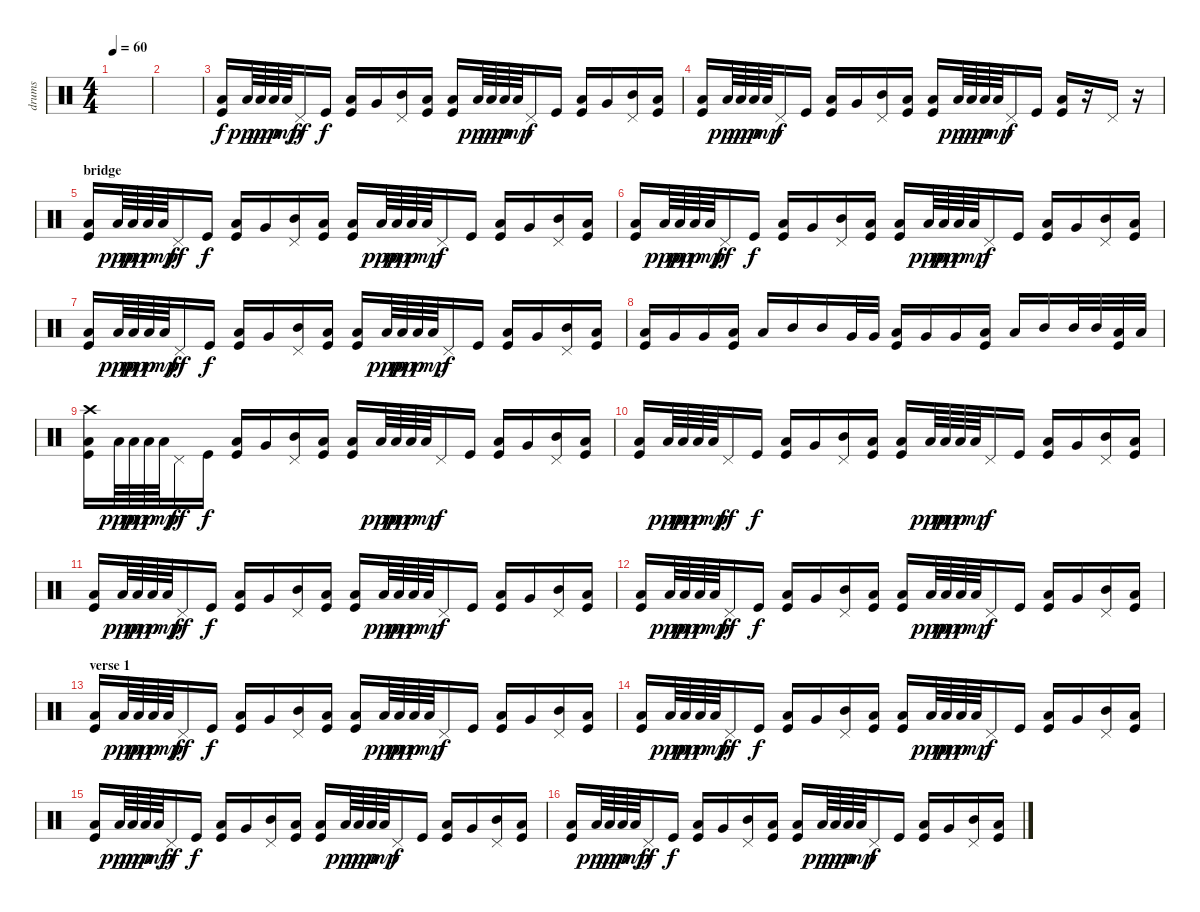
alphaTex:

\track ("drums" "drums") {instrument percussion}
\staff {score}
\articulation defaults
\ts (4 4)
\tempo 60
\clef neutral
\ks c
|
|
("Low Floor Tom (hit)" "Kick (hit)").16 "Low Floor Tom (hit)".64{dy ppp} "Low Floor Tom (hit)".64{dy pp} "Low Floor Tom (hit)".64{dy p} "Low Floor Tom (hit)".64{dy mp} "Pedal Hi-Hat (hit)".16{dy ff} "Kick (hit)".16{dy f} ("Low Floor Tom (hit)" "Kick (hit)").16 "Very Low Tom (hit)".16 ("Mid Tom (hit)" "Pedal Hi-Hat (hit)").16 ("Low Floor Tom (hit)" "Kick (hit)").16 ("Low Floor Tom (hit)" "Kick (hit)").16 "Low Floor Tom (hit)".64{dy ppp} "Low Floor Tom (hit)".64{dy pp} "Low Floor Tom (hit)".64{dy p} "Low Floor Tom (hit)".64{dy mp} "Pedal Hi-Hat (hit)".16{dy f} "Kick (hit)".16 ("Low Floor Tom (hit)" "Kick (hit)").16 "Very Low Tom (hit)".16 ("Mid Tom (hit)" "Pedal Hi-Hat (hit)").16 ("Low Floor Tom (hit)" "Kick (hit)").16 |
("Low Floor Tom (hit)" "Kick (hit)").16 "Low Floor Tom (hit)".64{dy ppp} "Low Floor Tom (hit)".64{dy pp} "Low Floor Tom (hit)".64{dy p} "Low Floor Tom (hit)".64{dy mp} "Pedal Hi-Hat (hit)".16{dy f} "Kick (hit)".16 ("Low Floor Tom (hit)" "Kick (hit)").16 "Very Low Tom (hit)".16 ("Mid Tom (hit)" "Pedal Hi-Hat (hit)").16 ("Low Floor Tom (hit)" "Kick (hit)").16 ("Low Floor Tom (hit)" "Kick (hit)").16 "Low Floor Tom (hit)".64{dy ppp} "Low Floor Tom (hit)".64{dy pp} "Low Floor Tom (hit)".64{dy p} "Low Floor Tom (hit)".64{dy mp} "Pedal Hi-Hat (hit)".16{dy f} "Kick (hit)".16 ("Low Floor Tom (hit)" "Kick (hit)").16 r.16 "Pedal Hi-Hat (hit)".16 r.16 |
\section ("" "bridge")
("Low Floor Tom (hit)" "Kick (hit)").16 "Low Floor Tom (hit)".64{dy ppp} "Low Floor Tom (hit)".64{dy pp} "Low Floor Tom (hit)".64{dy p} "Low Floor Tom (hit)".64{dy mp} "Pedal Hi-Hat (hit)".16{dy ff} "Kick (hit)".16{dy f} ("Low Floor Tom (hit)" "Kick (hit)").16 "Very Low Tom (hit)".16 ("Mid Tom (hit)" "Pedal Hi-Hat (hit)").16 ("Low Floor Tom (hit)" "Kick (hit)").16 ("Low Floor Tom (hit)" "Kick (hit)").16 "Low Floor Tom (hit)".64{dy ppp} "Low Floor Tom (hit)".64{dy pp} "Low Floor Tom (hit)".64{dy p} "Low Floor Tom (hit)".64{dy mp} "Pedal Hi-Hat (hit)".16{dy f} "Kick (hit)".16 ("Low Floor Tom (hit)" "Kick (hit)").16 "Very Low Tom (hit)".16 ("Mid Tom (hit)" "Pedal Hi-Hat (hit)").16 ("Low Floor Tom (hit)" "Kick (hit)").16 |
("Low Floor Tom (hit)" "Kick (hit)").16 "Low Floor Tom (hit)".64{dy ppp} "Low Floor Tom (hit)".64{dy pp} "Low Floor Tom (hit)".64{dy p} "Low Floor Tom (hit)".64{dy mp} "Pedal Hi-Hat (hit)".16{dy ff} "Kick (hit)".16{dy f} ("Low Floor Tom (hit)" "Kick (hit)").16 "Very Low Tom (hit)".16 ("Mid Tom (hit)" "Pedal Hi-Hat (hit)").16 ("Low Floor Tom (hit)" "Kick (hit)").16 ("Low Floor Tom (hit)" "Kick (hit)").16 "Low Floor Tom (hit)".64{dy ppp} "Low Floor Tom (hit)".64{dy pp} "Low Floor Tom (hit)".64{dy p} "Low Floor Tom (hit)".64{dy mp} "Pedal Hi-Hat (hit)".16{dy f} "Kick (hit)".16 ("Low Floor Tom (hit)" "Kick (hit)").16 "Very Low Tom (hit)".16 ("Mid Tom (hit)" "Pedal Hi-Hat (hit)").16 ("Low Floor Tom (hit)" "Kick (hit)").16 |
("Low Floor Tom (hit)" "Kick (hit)").16 "Low Floor Tom (hit)".64{dy ppp} "Low Floor Tom (hit)".64{dy pp} "Low Floor Tom (hit)".64{dy p} "Low Floor Tom (hit)".64{dy mp} "Pedal Hi-Hat (hit)".16{dy ff} "Kick (hit)".16{dy f} ("Low Floor Tom (hit)" "Kick (hit)").16 "Very Low Tom (hit)".16 ("Mid Tom (hit)" "Pedal Hi-Hat (hit)").16 ("Low Floor Tom (hit)" "Kick (hit)").16 ("Low Floor Tom (hit)" "Kick (hit)").16 "Low Floor Tom (hit)".64{dy ppp} "Low Floor Tom (hit)".64{dy pp} "Low Floor Tom (hit)".64{dy p} "Low Floor Tom (hit)".64{dy mp} "Pedal Hi-Hat (hit)".16{dy f} "Kick (hit)".16 ("Low Floor Tom (hit)" "Kick (hit)").16 "Very Low Tom (hit)".16 ("Mid Tom (hit)" "Pedal Hi-Hat (hit)").16 ("Low Floor Tom (hit)" "Kick (hit)").16 |
("Low Floor Tom (hit)" "Kick (hit)").16 "Very Low Tom (hit)".16 "Very Low Tom (hit)".16 ("Low Floor Tom (hit)" "Kick (hit)").16 "Low Floor Tom (hit)".16 "Mid Tom (hit)".16 "Mid Tom (hit)".16 "Very Low Tom (hit)".32 "Very Low Tom (hit)".32 ("Low Floor Tom (hit)" "Kick (hit)").16 "Very Low Tom (hit)".16 "Very Low Tom (hit)".16 ("Low Floor Tom (hit)" "Kick (hit)").16 "Low Floor Tom (hit)".16 "Mid Tom (hit)".16 "Mid Tom (hit)".32 "Mid Tom (hit)".32 ("Low Floor Tom (hit)" "Kick (hit)").32 "Low Floor Tom (hit)".32 |
("Crash high (hit)" "Low Floor Tom (hit)" "Kick (hit)").16 "Low Floor Tom (hit)".64{dy ppp} "Low Floor Tom (hit)".64{dy pp} "Low Floor Tom (hit)".64{dy p} "Low Floor Tom (hit)".64{dy mp} "Pedal Hi-Hat (hit)".16{dy ff} "Kick (hit)".16{dy f} ("Low Floor Tom (hit)" "Kick (hit)").16 "Very Low Tom (hit)".16 ("Mid Tom (hit)" "Pedal Hi-Hat (hit)").16 ("Low Floor Tom (hit)" "Kick (hit)").16 ("Low Floor Tom (hit)" "Kick (hit)").16 "Low Floor Tom (hit)".64{dy ppp} "Low Floor Tom (hit)".64{dy pp} "Low Floor Tom (hit)".64{dy p} "Low Floor Tom (hit)".64{dy mp} "Pedal Hi-Hat (hit)".16{dy f} "Kick (hit)".16 ("Low Floor Tom (hit)" "Kick (hit)").16 "Very Low Tom (hit)".16 ("Mid Tom (hit)" "Pedal Hi-Hat (hit)").16 ("Low Floor Tom (hit)" "Kick (hit)").16 |
("Low Floor Tom (hit)" "Kick (hit)").16 "Low Floor Tom (hit)".64{dy ppp} "Low Floor Tom (hit)".64{dy pp} "Low Floor Tom (hit)".64{dy p} "Low Floor Tom (hit)".64{dy mp} "Pedal Hi-Hat (hit)".16{dy ff} "Kick (hit)".16{dy f} ("Low Floor Tom (hit)" "Kick (hit)").16 "Very Low Tom (hit)".16 ("Mid Tom (hit)" "Pedal Hi-Hat (hit)").16 ("Low Floor Tom (hit)" "Kick (hit)").16 ("Low Floor Tom (hit)" "Kick (hit)").16 "Low Floor Tom (hit)".64{dy ppp} "Low Floor Tom (hit)".64{dy pp} "Low Floor Tom (hit)".64{dy p} "Low Floor Tom (hit)".64{dy mp} "Pedal Hi-Hat (hit)".16{dy f} "Kick (hit)".16 ("Low Floor Tom (hit)" "Kick (hit)").16 "Very Low Tom (hit)".16 ("Mid Tom (hit)" "Pedal Hi-Hat (hit)").16 ("Low Floor Tom (hit)" "Kick (hit)").16 |
("Low Floor Tom (hit)" "Kick (hit)").16 "Low Floor Tom (hit)".64{dy ppp} "Low Floor Tom (hit)".64{dy pp} "Low Floor Tom (hit)".64{dy p} "Low Floor Tom (hit)".64{dy mp} "Pedal Hi-Hat (hit)".16{dy ff} "Kick (hit)".16{dy f} ("Low Floor Tom (hit)" "Kick (hit)").16 "Very Low Tom (hit)".16 ("Mid Tom (hit)" "Pedal Hi-Hat (hit)").16 ("Low Floor Tom (hit)" "Kick (hit)").16 ("Low Floor Tom (hit)" "Kick (hit)").16 "Low Floor Tom (hit)".64{dy ppp} "Low Floor Tom (hit)".64{dy pp} "Low Floor Tom (hit)".64{dy p} "Low Floor Tom (hit)".64{dy mp} "Pedal Hi-Hat (hit)".16{dy f} "Kick (hit)".16 ("Low Floor Tom (hit)" "Kick (hit)").16 "Very Low Tom (hit)".16 ("Mid Tom (hit)" "Pedal Hi-Hat (hit)").16 ("Low Floor Tom (hit)" "Kick (hit)").16 |
("Low Floor Tom (hit)" "Kick (hit)").16 "Low Floor Tom (hit)".64{dy ppp} "Low Floor Tom (hit)".64{dy pp} "Low Floor Tom (hit)".64{dy p} "Low Floor Tom (hit)".64{dy mp} "Pedal Hi-Hat (hit)".16{dy ff} "Kick (hit)".16{dy f} ("Low Floor Tom (hit)" "Kick (hit)").16 "Very Low Tom (hit)".16 ("Mid Tom (hit)" "Pedal Hi-Hat (hit)").16 ("Low Floor Tom (hit)" "Kick (hit)").16 ("Low Floor Tom (hit)" "Kick (hit)").16 "Low Floor Tom (hit)".64{dy ppp} "Low Floor Tom (hit)".64{dy pp} "Low Floor Tom (hit)".64{dy p} "Low Floor Tom (hit)".64{dy mp} "Pedal Hi-Hat (hit)".16{dy f} "Kick (hit)".16 ("Low Floor Tom (hit)" "Kick (hit)").16 "Very Low Tom (hit)".16 ("Mid Tom (hit)" "Pedal Hi-Hat (hit)").16 ("Low Floor Tom (hit)" "Kick (hit)").16 |
\section ("" "verse 1")
("Low Floor Tom (hit)" "Kick (hit)").16 "Low Floor Tom (hit)".64{dy ppp} "Low Floor Tom (hit)".64{dy pp} "Low Floor Tom (hit)".64{dy p} "Low Floor Tom (hit)".64{dy mp} "Pedal Hi-Hat (hit)".16{dy ff} "Kick (hit)".16{dy f} ("Low Floor Tom (hit)" "Kick (hit)").16 "Very Low Tom (hit)".16 ("Mid Tom (hit)" "Pedal Hi-Hat (hit)").16 ("Low Floor Tom (hit)" "Kick (hit)").16 ("Low Floor Tom (hit)" "Kick (hit)").16 "Low Floor Tom (hit)".64{dy ppp} "Low Floor Tom (hit)".64{dy pp} "Low Floor Tom (hit)".64{dy p} "Low Floor Tom (hit)".64{dy mp} "Pedal Hi-Hat (hit)".16{dy f} "Kick (hit)".16 ("Low Floor Tom (hit)" "Kick (hit)").16 "Very Low Tom (hit)".16 ("Mid Tom (hit)" "Pedal Hi-Hat (hit)").16 ("Low Floor Tom (hit)" "Kick (hit)").16 |
("Low Floor Tom (hit)" "Kick (hit)").16 "Low Floor Tom (hit)".64{dy ppp} "Low Floor Tom (hit)".64{dy pp} "Low Floor Tom (hit)".64{dy p} "Low Floor Tom (hit)".64{dy mp} "Pedal Hi-Hat (hit)".16{dy ff} "Kick (hit)".16{dy f} ("Low Floor Tom (hit)" "Kick (hit)").16 "Very Low Tom (hit)".16 ("Mid Tom (hit)" "Pedal Hi-Hat (hit)").16 ("Low Floor Tom (hit)" "Kick (hit)").16 ("Low Floor Tom (hit)" "Kick (hit)").16 "Low Floor Tom (hit)".64{dy ppp} "Low Floor Tom (hit)".64{dy pp} "Low Floor Tom (hit)".64{dy p} "Low Floor Tom (hit)".64{dy mp} "Pedal Hi-Hat (hit)".16{dy f} "Kick (hit)".16 ("Low Floor Tom (hit)" "Kick (hit)").16 "Very Low Tom (hit)".16 ("Mid Tom (hit)" "Pedal Hi-Hat (hit)").16 ("Low Floor Tom (hit)" "Kick (hit)").16 |
("Low Floor Tom (hit)" "Kick (hit)").16 "Low Floor Tom (hit)".64{dy ppp} "Low Floor Tom (hit)".64{dy pp} "Low Floor Tom (hit)".64{dy p} "Low Floor Tom (hit)".64{dy mp} "Pedal Hi-Hat (hit)".16{dy ff} "Kick (hit)".16{dy f} ("Low Floor Tom (hit)" "Kick (hit)").16 "Very Low Tom (hit)".16 ("Mid Tom (hit)" "Pedal Hi-Hat (hit)").16 ("Low Floor Tom (hit)" "Kick (hit)").16 ("Low Floor Tom (hit)" "Kick (hit)").16 "Low Floor Tom (hit)".64{dy ppp} "Low Floor Tom (hit)".64{dy pp} "Low Floor Tom (hit)".64{dy p} "Low Floor Tom (hit)".64{dy mp} "Pedal Hi-Hat (hit)".16{dy f} "Kick (hit)".16 ("Low Floor Tom (hit)" "Kick (hit)").16 "Very Low Tom (hit)".16 ("Mid Tom (hit)" "Pedal Hi-Hat (hit)").16 ("Low Floor Tom (hit)" "Kick (hit)").16 |
("Low Floor Tom (hit)" "Kick (hit)").16 "Low Floor Tom (hit)".64{dy ppp} "Low Floor Tom (hit)".64{dy pp} "Low Floor Tom (hit)".64{dy p} "Low Floor Tom (hit)".64{dy mp} "Pedal Hi-Hat (hit)".16{dy ff} "Kick (hit)".16{dy f} ("Low Floor Tom (hit)" "Kick (hit)").16 "Very Low Tom (hit)".16 ("Mid Tom (hit)" "Pedal Hi-Hat (hit)").16 ("Low Floor Tom (hit)" "Kick (hit)").16 ("Low Floor Tom (hit)" "Kick (hit)").16 "Low Floor Tom (hit)".64{dy ppp} "Low Floor Tom (hit)".64{dy pp} "Low Floor Tom (hit)".64{dy p} "Low Floor Tom (hit)".64{dy mp} "Pedal Hi-Hat (hit)".16{dy f} "Kick (hit)".16 ("Low Floor Tom (hit)" "Kick (hit)").16 "Very Low Tom (hit)".16 ("Mid Tom (hit)" "Pedal Hi-Hat (hit)").16 ("Low Floor Tom (hit)" "Kick (hit)").16
